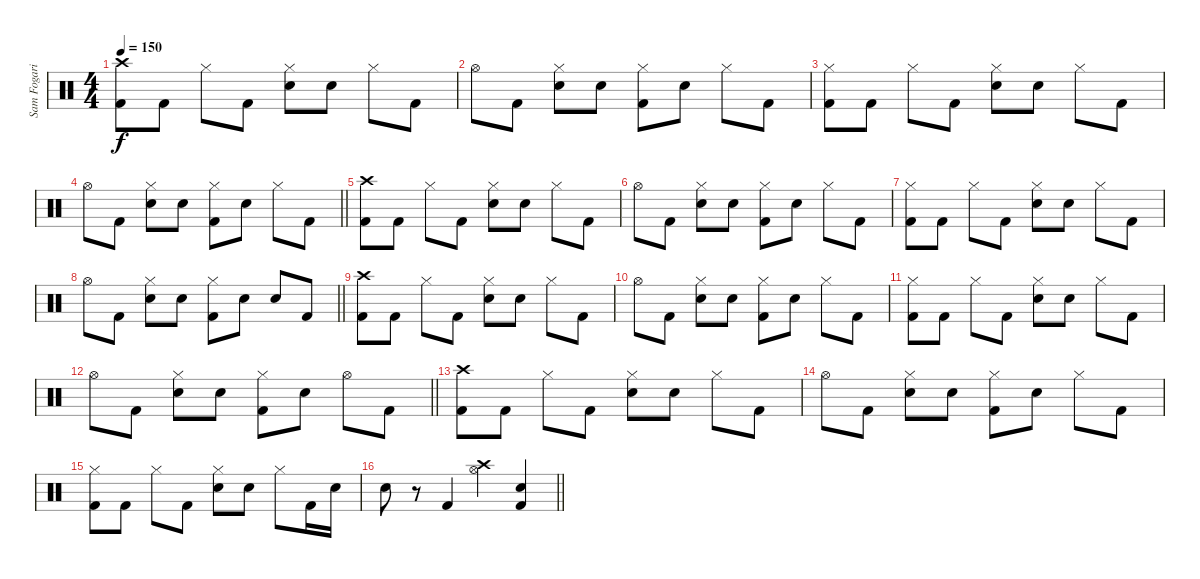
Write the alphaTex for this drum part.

\track ("Sam Fogarino" "Sam Fogari") {instrument percussion}
\staff {score}
\articulation defaults
\ts (4 4)
\tempo 150
\clef neutral
\ks c
("Crash high (hit)" "Kick (hit) 2").8{dy f} "Kick (hit) 2".8 "Hi-Hat (closed)".8 "Kick (hit) 2".8 ("Hi-Hat (closed)" "Electric Snare (hit)").8 "Electric Snare (hit)".8 "Hi-Hat (closed)".8 "Kick (hit) 2".8 |
"Hi-Hat (open)".8 "Kick (hit) 2".8 ("Hi-Hat (closed)" "Electric Snare (hit)").8 "Electric Snare (hit)".8 ("Hi-Hat (closed)" "Kick (hit) 2").8 "Electric Snare (hit)".8 "Hi-Hat (closed)".8 "Kick (hit) 2".8 |
("Hi-Hat (closed)" "Kick (hit) 2").8 "Kick (hit) 2".8 "Hi-Hat (closed)".8 "Kick (hit) 2".8 ("Hi-Hat (closed)" "Electric Snare (hit)").8 "Electric Snare (hit)".8 "Hi-Hat (closed)".8 "Kick (hit) 2".8 |
\barLineRight lightlight "Hi-Hat (open)".8 "Kick (hit) 2".8
("Hi-Hat (closed)" "Electric Snare (hit)").8 "Electric Snare (hit)".8 ("Hi-Hat (closed)" "Kick (hit) 2").8 "Electric Snare (hit)".8 "Hi-Hat (closed)".8 "Kick (hit) 2".8 |
("Crash high (hit)" "Kick (hit) 2").8 "Kick (hit) 2".8 "Hi-Hat (closed)".8 "Kick (hit) 2".8 ("Hi-Hat (closed)" "Electric Snare (hit)").8 "Electric Snare (hit)".8 "Hi-Hat (closed)".8 "Kick (hit) 2".8 |
"Hi-Hat (open)".8 "Kick (hit) 2".8 ("Hi-Hat (closed)" "Electric Snare (hit)").8 "Electric Snare (hit)".8 ("Hi-Hat (closed)" "Kick (hit) 2").8 "Electric Snare (hit)".8 "Hi-Hat (closed)".8 "Kick (hit) 2".8 |
("Hi-Hat (closed)" "Kick (hit) 2").8 "Kick (hit) 2".8 "Hi-Hat (closed)".8 "Kick (hit) 2".8 ("Hi-Hat (closed)" "Electric Snare (hit)").8 "Electric Snare (hit)".8 "Hi-Hat (closed)".8 "Kick (hit) 2".8 |
\barLineRight lightlight "Hi-Hat (open)".8 "Kick (hit) 2".8
("Hi-Hat (closed)" "Electric Snare (hit)").8 "Electric Snare (hit)".8 ("Hi-Hat (closed)" "Kick (hit) 2").8 "Electric Snare (hit)".8 "Electric Snare (hit)".8 "Kick (hit) 2".8 |
("Crash high (hit)" "Kick (hit) 2").8 "Kick (hit) 2".8 "Hi-Hat (closed)".8 "Kick (hit) 2".8 ("Hi-Hat (closed)" "Electric Snare (hit)").8 "Electric Snare (hit)".8 "Hi-Hat (closed)".8 "Kick (hit) 2".8 |
"Hi-Hat (open)".8 "Kick (hit) 2".8 ("Hi-Hat (closed)" "Electric Snare (hit)").8 "Electric Snare (hit)".8 ("Hi-Hat (closed)" "Kick (hit) 2").8 "Electric Snare (hit)".8 "Hi-Hat (closed)".8 "Kick (hit) 2".8 |
("Hi-Hat (closed)" "Kick (hit) 2").8 "Kick (hit) 2".8 "Hi-Hat (closed)".8 "Kick (hit) 2".8 ("Hi-Hat (closed)" "Electric Snare (hit)").8 "Electric Snare (hit)".8 "Hi-Hat (closed)".8 "Kick (hit) 2".8 |
\barLineRight lightlight "Hi-Hat (open)".8 "Kick (hit) 2".8
("Hi-Hat (closed)" "Electric Snare (hit)").8 "Electric Snare (hit)".8 ("Hi-Hat (closed)" "Kick (hit) 2").8 "Electric Snare (hit)".8 "Hi-Hat (open)".8 "Kick (hit) 2".8 |
("Crash high (hit)" "Kick (hit) 2").8 "Kick (hit) 2".8 "Hi-Hat (closed)".8 "Kick (hit) 2".8 ("Hi-Hat (closed)" "Electric Snare (hit)").8 "Electric Snare (hit)".8 "Hi-Hat (closed)".8 "Kick (hit) 2".8 |
"Hi-Hat (open)".8 "Kick (hit) 2".8 ("Hi-Hat (closed)" "Electric Snare (hit)").8 "Electric Snare (hit)".8 ("Hi-Hat (closed)" "Kick (hit) 2").8 "Electric Snare (hit)".8 "Hi-Hat (closed)".8 "Kick (hit) 2".8 |
("Hi-Hat (closed)" "Kick (hit) 2").8 "Kick (hit) 2".8 "Hi-Hat (closed)".8 "Kick (hit) 2".8 ("Hi-Hat (closed)" "Electric Snare (hit)").8 "Electric Snare (hit)".8 "Hi-Hat (closed)".8 "Kick (hit) 2".16 "Electric Snare (hit)".16 |
\barLineRight lightlight "Electric Snare (hit)".8
r.8 "Kick (hit) 2".4 ("Crash high (hit)" "Hi-Hat (open)").4 ("Electric Snare (hit)" "Kick (hit) 2").4
